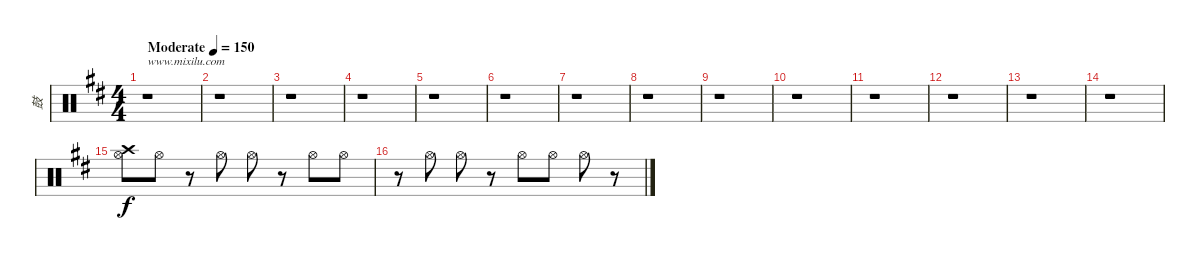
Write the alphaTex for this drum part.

\track ("鼓" "鼓") {instrument percussion}
\staff {score}
\articulation defaults
\ts (4 4)
\tempo (150 "Moderate")
\clef neutral
\ks d
r.1{txt "www.mixilu.com" dy f} |
r.1 |
r.1 |
r.1 |
r.1 |
r.1 |
r.1 |
r.1 |
r.1 |
r.1 |
r.1 |
r.1 |
r.1 |
r.1 |
("Crash high (hit)" "Hi-Hat (open)").8 "Hi-Hat (open)".8 r.8 "Hi-Hat (open)".8 "Hi-Hat (open)".8 r.8 "Hi-Hat (open)".8 "Hi-Hat (open)".8 |
r.8 "Hi-Hat (open)".8 "Hi-Hat (open)".8 r.8 "Hi-Hat (open)".8 "Hi-Hat (open)".8 "Hi-Hat (open)".8 r.8
